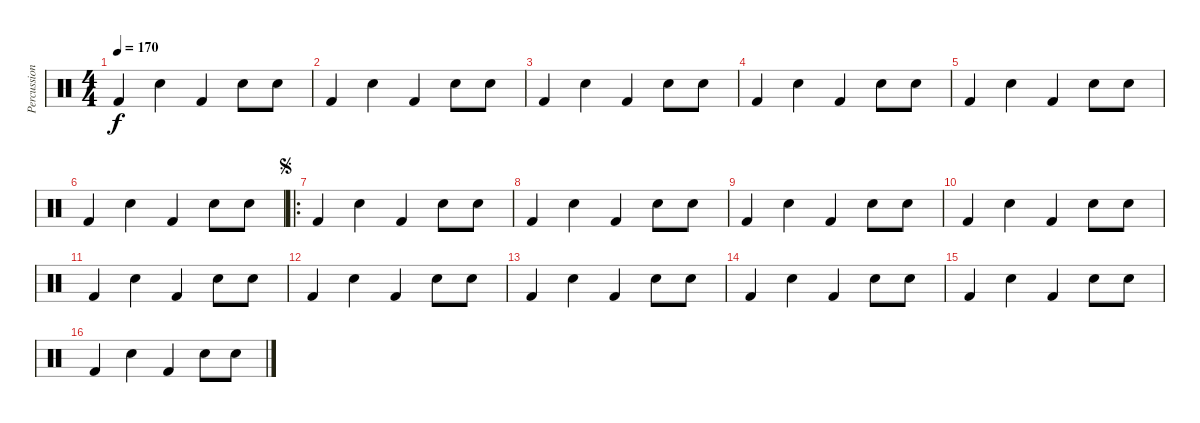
\track ("Percussions" "Percussion") {instrument percussion}
\staff {score}
\articulation defaults
\ts (4 4)
\tempo 170
\clef neutral
\ks c "Kick (hit) 2".4{dy f} "Electric Snare (hit)".4 "Kick (hit) 2".4 "Electric Snare (hit)".8 "Electric Snare (hit)".8
|
"Kick (hit) 2".4 "Electric Snare (hit)".4 "Kick (hit) 2".4 "Electric Snare (hit)".8 "Electric Snare (hit)".8 |
"Kick (hit) 2".4 "Electric Snare (hit)".4 "Kick (hit) 2".4 "Electric Snare (hit)".8 "Electric Snare (hit)".8 |
"Kick (hit) 2".4 "Electric Snare (hit)".4 "Kick (hit) 2".4 "Electric Snare (hit)".8 "Electric Snare (hit)".8 |
"Kick (hit) 2".4 "Electric Snare (hit)".4 "Kick (hit) 2".4 "Electric Snare (hit)".8 "Electric Snare (hit)".8 |
"Kick (hit) 2".4 "Electric Snare (hit)".4 "Kick (hit) 2".4 "Electric Snare (hit)".8 "Electric Snare (hit)".8 |
\ro
\jump segno "Kick (hit) 2".4 "Electric Snare (hit)".4 "Kick (hit) 2".4 "Electric Snare (hit)".8 "Electric Snare (hit)".8
|
"Kick (hit) 2".4 "Electric Snare (hit)".4 "Kick (hit) 2".4 "Electric Snare (hit)".8 "Electric Snare (hit)".8 |
"Kick (hit) 2".4 "Electric Snare (hit)".4 "Kick (hit) 2".4 "Electric Snare (hit)".8 "Electric Snare (hit)".8 |
"Kick (hit) 2".4 "Electric Snare (hit)".4 "Kick (hit) 2".4 "Electric Snare (hit)".8 "Electric Snare (hit)".8 |
"Kick (hit) 2".4 "Electric Snare (hit)".4 "Kick (hit) 2".4 "Electric Snare (hit)".8 "Electric Snare (hit)".8 |
"Kick (hit) 2".4 "Electric Snare (hit)".4 "Kick (hit) 2".4 "Electric Snare (hit)".8 "Electric Snare (hit)".8 |
"Kick (hit) 2".4 "Electric Snare (hit)".4 "Kick (hit) 2".4 "Electric Snare (hit)".8 "Electric Snare (hit)".8 |
"Kick (hit) 2".4 "Electric Snare (hit)".4 "Kick (hit) 2".4 "Electric Snare (hit)".8 "Electric Snare (hit)".8 |
"Kick (hit) 2".4 "Electric Snare (hit)".4 "Kick (hit) 2".4 "Electric Snare (hit)".8 "Electric Snare (hit)".8 |
"Kick (hit) 2".4 "Electric Snare (hit)".4 "Kick (hit) 2".4 "Electric Snare (hit)".8 "Electric Snare (hit)".8
